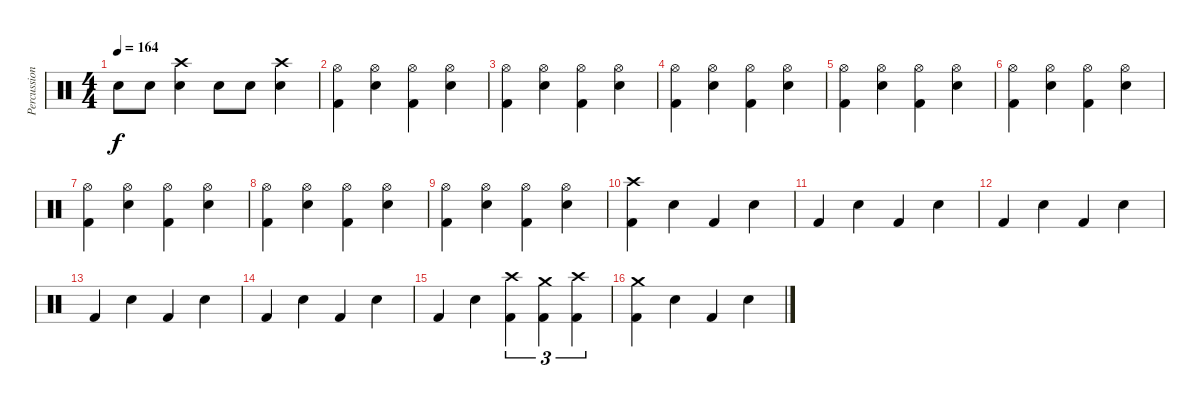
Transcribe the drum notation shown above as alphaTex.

\track ("Percussions" "Percussion") {instrument percussion}
\staff {score}
\articulation defaults
\ts (4 4)
\tempo 164
\clef neutral
\ks c "Snare (hit) 2".8{dy f} "Snare (hit) 2".8
("Crash high (hit)" "Snare (hit) 2").4 "Snare (hit) 2".8 "Snare (hit) 2".8 ("Crash high (hit)" "Snare (hit) 2").4 |
("Hi-Hat (open)" "Kick (hit) 2").4 ("Hi-Hat (open)" "Snare (hit) 2").4 ("Hi-Hat (open)" "Kick (hit) 2").4 ("Hi-Hat (open)" "Snare (hit) 2").4 |
("Hi-Hat (open)" "Kick (hit) 2").4 ("Hi-Hat (open)" "Snare (hit) 2").4 ("Hi-Hat (open)" "Kick (hit) 2").4 ("Hi-Hat (open)" "Snare (hit) 2").4 |
("Hi-Hat (open)" "Kick (hit) 2").4 ("Hi-Hat (open)" "Snare (hit) 2").4 ("Hi-Hat (open)" "Kick (hit) 2").4 ("Hi-Hat (open)" "Snare (hit) 2").4 |
("Hi-Hat (open)" "Kick (hit) 2").4 ("Hi-Hat (open)" "Snare (hit) 2").4 ("Hi-Hat (open)" "Kick (hit) 2").4 ("Hi-Hat (open)" "Snare (hit) 2").4 |
("Hi-Hat (open)" "Kick (hit) 2").4 ("Hi-Hat (open)" "Snare (hit) 2").4 ("Hi-Hat (open)" "Kick (hit) 2").4 ("Hi-Hat (open)" "Snare (hit) 2").4 |
("Hi-Hat (open)" "Kick (hit) 2").4 ("Hi-Hat (open)" "Snare (hit) 2").4 ("Hi-Hat (open)" "Kick (hit) 2").4 ("Hi-Hat (open)" "Snare (hit) 2").4 |
("Hi-Hat (open)" "Kick (hit) 2").4 ("Hi-Hat (open)" "Snare (hit) 2").4 ("Hi-Hat (open)" "Kick (hit) 2").4 ("Hi-Hat (open)" "Snare (hit) 2").4 |
("Hi-Hat (open)" "Kick (hit) 2").4 ("Hi-Hat (open)" "Snare (hit) 2").4 ("Hi-Hat (open)" "Kick (hit) 2").4 ("Hi-Hat (open)" "Snare (hit) 2").4 |
("Crash high (hit)" "Kick (hit) 2").4 "Snare (hit) 2".4 "Kick (hit) 2".4 "Snare (hit) 2".4 |
"Kick (hit) 2".4 "Snare (hit) 2".4 "Kick (hit) 2".4 "Snare (hit) 2".4 |
"Kick (hit) 2".4 "Snare (hit) 2".4 "Kick (hit) 2".4 "Snare (hit) 2".4 |
"Kick (hit) 2".4 "Snare (hit) 2".4 "Kick (hit) 2".4 "Snare (hit) 2".4 |
"Kick (hit) 2".4 "Snare (hit) 2".4 "Kick (hit) 2".4 "Snare (hit) 2".4 |
"Kick (hit) 2".4 "Snare (hit) 2".4 ("Crash high (hit)" "Kick (hit) 2").4{tu (3 2)} ("Crash medium (hit)" "Kick (hit) 2").4{tu (3 2)} ("Crash high (hit)" "Kick (hit) 2").4{tu (3 2)} |
("Crash medium (hit)" "Kick (hit) 2").4 "Snare (hit) 2".4 "Kick (hit) 2".4 "Snare (hit) 2".4
